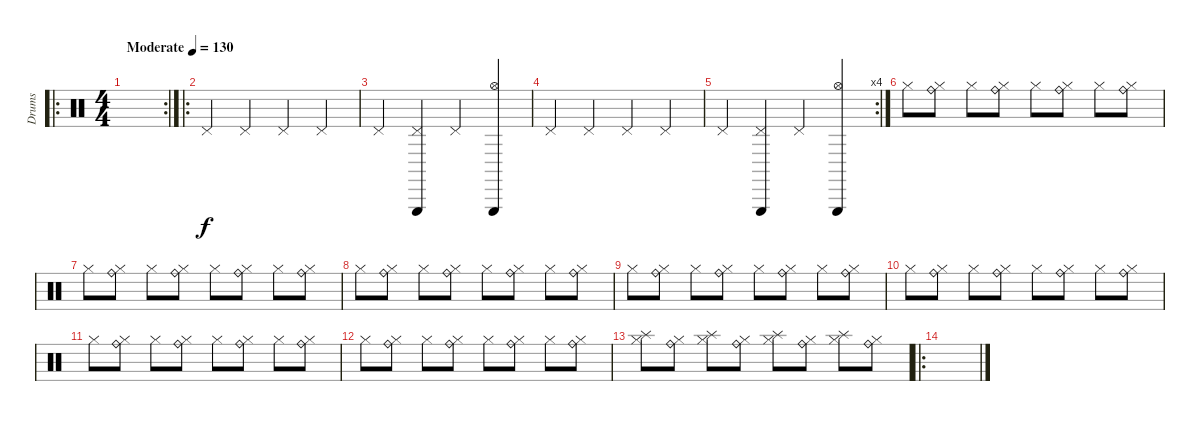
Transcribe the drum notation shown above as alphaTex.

\track ("Drums" "Drums") {instrument percussion}
\staff {score}
\articulation defaults
\ro
\rc 2
\ts (4 4)
\tempo (130 "Moderate")
\clef neutral
\ks c
|
\ro "Pedal Hi-Hat (hit)".4 "Pedal Hi-Hat (hit)".4 "Pedal Hi-Hat (hit)".4 "Pedal Hi-Hat (hit)".4
|
"Pedal Hi-Hat (hit)".4 ("Pedal Hi-Hat (hit)" "Triangle (hit)").4 "Pedal Hi-Hat (hit)".4 ("Hi-Hat (open)" "Triangle (hit)").4 |
"Pedal Hi-Hat (hit)".4 "Pedal Hi-Hat (hit)".4 "Pedal Hi-Hat (hit)".4 "Pedal Hi-Hat (hit)".4 |
\rc 4 "Pedal Hi-Hat (hit)".4
("Pedal Hi-Hat (hit)" "Triangle (hit)").4 "Pedal Hi-Hat (hit)".4 ("Hi-Hat (open)" "Triangle (hit)").4 |
"Hi-Hat (closed)".8 ("Hi-Hat (closed)" "Ride (bell)").8 "Hi-Hat (closed)".8 ("Hi-Hat (closed)" "Ride (bell)").8 "Hi-Hat (closed)".8 ("Hi-Hat (closed)" "Ride (bell)").8 "Hi-Hat (closed)".8 ("Hi-Hat (closed)" "Ride (bell)").8 |
"Hi-Hat (closed)".8 ("Hi-Hat (closed)" "Ride (bell)").8 "Hi-Hat (closed)".8 ("Hi-Hat (closed)" "Ride (bell)").8 "Hi-Hat (closed)".8 ("Hi-Hat (closed)" "Ride (bell)").8 "Hi-Hat (closed)".8 ("Hi-Hat (closed)" "Ride (bell)").8 |
"Hi-Hat (closed)".8 ("Hi-Hat (closed)" "Ride (bell)").8 "Hi-Hat (closed)".8 ("Hi-Hat (closed)" "Ride (bell)").8 "Hi-Hat (closed)".8 ("Hi-Hat (closed)" "Ride (bell)").8 "Hi-Hat (closed)".8 ("Hi-Hat (closed)" "Ride (bell)").8 |
"Hi-Hat (closed)".8 ("Hi-Hat (closed)" "Ride (bell)").8 "Hi-Hat (closed)".8 ("Hi-Hat (closed)" "Ride (bell)").8 "Hi-Hat (closed)".8 ("Hi-Hat (closed)" "Ride (bell)").8 "Hi-Hat (closed)".8 ("Hi-Hat (closed)" "Ride (bell)").8 |
"Hi-Hat (closed)".8 ("Hi-Hat (closed)" "Ride (bell)").8 "Hi-Hat (closed)".8 ("Hi-Hat (closed)" "Ride (bell)").8 "Hi-Hat (closed)".8 ("Hi-Hat (closed)" "Ride (bell)").8 "Hi-Hat (closed)".8 ("Hi-Hat (closed)" "Ride (bell)").8 |
"Hi-Hat (closed)".8 ("Hi-Hat (closed)" "Ride (bell)").8 "Hi-Hat (closed)".8 ("Hi-Hat (closed)" "Ride (bell)").8 "Hi-Hat (closed)".8 ("Hi-Hat (closed)" "Ride (bell)").8 "Hi-Hat (closed)".8 ("Hi-Hat (closed)" "Ride (bell)").8 |
"Hi-Hat (closed)".8 ("Hi-Hat (closed)" "Ride (bell)").8 "Hi-Hat (closed)".8 ("Hi-Hat (closed)" "Ride (bell)").8 "Hi-Hat (closed)".8 ("Hi-Hat (closed)" "Ride (bell)").8 "Hi-Hat (closed)".8 ("Hi-Hat (closed)" "Ride (bell)").8 |
("Hi-Hat (closed)" "Splash (hit)").8 ("Hi-Hat (closed)" "Ride (bell)").8 ("Hi-Hat (closed)" "Splash (hit)").8 ("Hi-Hat (closed)" "Ride (bell)").8 ("Hi-Hat (closed)" "Splash (hit)").8 ("Hi-Hat (closed)" "Ride (bell)").8 ("Hi-Hat (closed)" "Splash (hit)").8 ("Hi-Hat (closed)" "Ride (bell)").8 |
\ro
